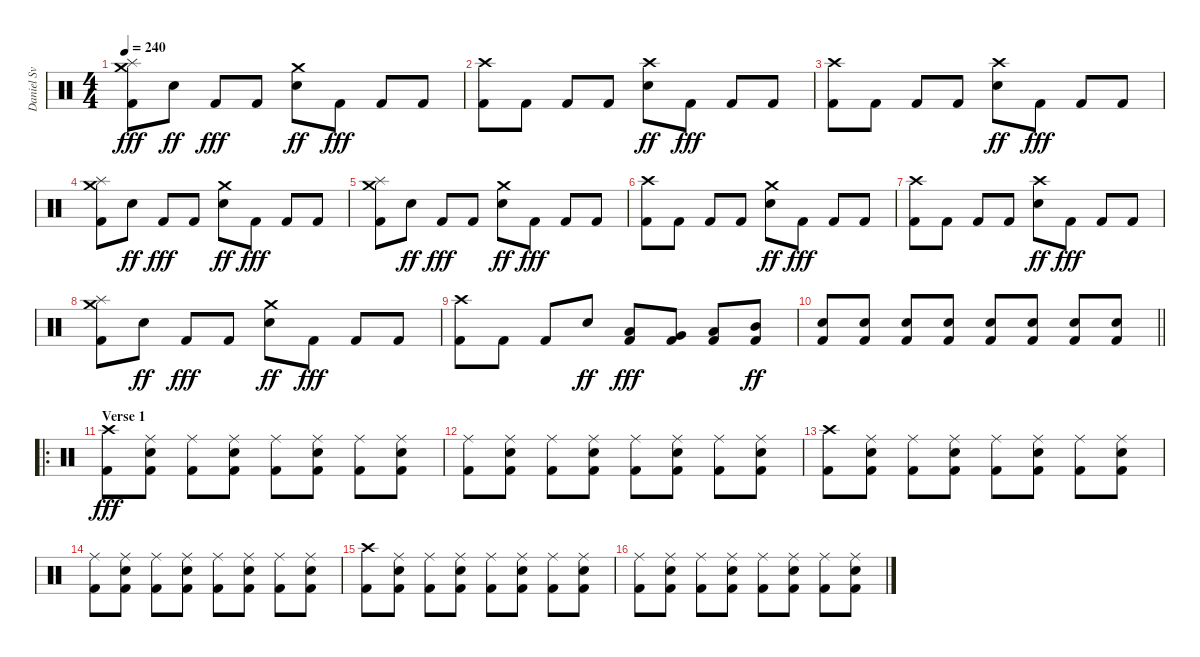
\track (" Daniel Svensson" " Daniel Sv") {instrument percussion}
\staff {score}
\articulation defaults
\ts (4 4)
\tempo 240
\clef neutral
\ks c
("Crash medium (hit)" "Splash (hit)" "Kick (hit) 2").8{dy fff} "Electric Snare (hit)".8{dy ff} "Kick (hit) 2".8{dy fff} "Kick (hit) 2".8 ("Crash medium (hit)" "Electric Snare (hit)").8{dy ff} "Kick (hit) 2".8{dy fff} "Kick (hit) 2".8 "Kick (hit) 2".8 |
("Crash high (hit)" "Kick (hit) 2").8 "Kick (hit) 2".8 "Kick (hit) 2".8 "Kick (hit) 2".8 ("Crash high (hit)" "Electric Snare (hit)").8{dy ff} "Kick (hit) 2".8{dy fff} "Kick (hit) 2".8 "Kick (hit) 2".8 |
("Crash high (hit)" "Kick (hit) 2").8 "Kick (hit) 2".8 "Kick (hit) 2".8 "Kick (hit) 2".8 ("Crash high (hit)" "Electric Snare (hit)").8{dy ff} "Kick (hit) 2".8{dy fff} "Kick (hit) 2".8 "Kick (hit) 2".8 |
("Crash medium (hit)" "Splash (hit)" "Kick (hit) 2").8 "Electric Snare (hit)".8{dy ff} "Kick (hit) 2".8{dy fff} "Kick (hit) 2".8 ("Crash medium (hit)" "Electric Snare (hit)").8{dy ff} "Kick (hit) 2".8{dy fff} "Kick (hit) 2".8 "Kick (hit) 2".8 |
("Crash medium (hit)" "Splash (hit)" "Kick (hit) 2").8 "Electric Snare (hit)".8{dy ff} "Kick (hit) 2".8{dy fff} "Kick (hit) 2".8 ("Crash medium (hit)" "Electric Snare (hit)").8{dy ff} "Kick (hit) 2".8{dy fff} "Kick (hit) 2".8 "Kick (hit) 2".8 |
("Crash high (hit)" "Kick (hit) 2").8 "Kick (hit) 2".8 "Kick (hit) 2".8 "Kick (hit) 2".8 ("Crash medium (hit)" "Electric Snare (hit)").8{dy ff} "Kick (hit) 2".8{dy fff} "Kick (hit) 2".8 "Kick (hit) 2".8 |
("Crash high (hit)" "Kick (hit) 2").8 "Kick (hit) 2".8 "Kick (hit) 2".8 "Kick (hit) 2".8 ("Crash high (hit)" "Electric Snare (hit)").8{dy ff} "Kick (hit) 2".8{dy fff} "Kick (hit) 2".8 "Kick (hit) 2".8 |
("Crash medium (hit)" "Splash (hit)" "Kick (hit) 2").8 "Electric Snare (hit)".8{dy ff} "Kick (hit) 2".8{dy fff} "Kick (hit) 2".8 ("Crash medium (hit)" "Electric Snare (hit)").8{dy ff} "Kick (hit) 2".8{dy fff} "Kick (hit) 2".8 "Kick (hit) 2".8 |
("Crash high (hit)" "Kick (hit) 2").8 "Kick (hit) 2".8 "Kick (hit) 2".8 "Electric Snare (hit)".8{dy ff} ("Low Floor Tom (hit)" "Kick (hit) 2").8{dy fff} ("Very Low Tom (hit)" "Kick (hit) 2").8 ("Low Tom (hit)" "Kick (hit) 2").8 ("Mid Tom (hit)" "Kick (hit) 2").8{dy ff} |
\barLineRight lightlight
("Electric Snare (hit)" "Kick (hit) 2").8 ("Electric Snare (hit)" "Kick (hit) 2").8 ("Electric Snare (hit)" "Kick (hit) 2").8 ("Electric Snare (hit)" "Kick (hit) 2").8 ("Electric Snare (hit)" "Kick (hit) 2").8 ("Electric Snare (hit)" "Kick (hit) 2").8 ("Electric Snare (hit)" "Kick (hit) 2").8 ("Electric Snare (hit)" "Kick (hit) 2").8 |
\ro
\section ("" "Verse 1")
("Crash high (hit)" "Kick (hit) 2").8{dy fff} ("Ride (middle)" "Electric Snare (hit)" "Kick (hit) 2").8 ("Ride (middle)" "Kick (hit) 2").8 ("Ride (middle)" "Electric Snare (hit)" "Kick (hit) 2").8 ("Ride (middle)" "Kick (hit) 2").8 ("Ride (middle)" "Electric Snare (hit)" "Kick (hit) 2").8 ("Ride (middle)" "Kick (hit) 2").8 ("Ride (middle)" "Electric Snare (hit)" "Kick (hit) 2").8 |
("Ride (middle)" "Kick (hit) 2").8 ("Ride (middle)" "Electric Snare (hit)" "Kick (hit) 2").8 ("Ride (middle)" "Kick (hit) 2").8 ("Ride (middle)" "Electric Snare (hit)" "Kick (hit) 2").8 ("Ride (middle)" "Kick (hit) 2").8 ("Ride (middle)" "Electric Snare (hit)" "Kick (hit) 2").8 ("Ride (middle)" "Kick (hit) 2").8 ("Ride (middle)" "Electric Snare (hit)" "Kick (hit) 2").8 |
("Crash high (hit)" "Kick (hit) 2").8 ("Ride (middle)" "Electric Snare (hit)" "Kick (hit) 2").8 ("Ride (middle)" "Kick (hit) 2").8 ("Ride (middle)" "Electric Snare (hit)" "Kick (hit) 2").8 ("Ride (middle)" "Kick (hit) 2").8 ("Ride (middle)" "Electric Snare (hit)" "Kick (hit) 2").8 ("Ride (middle)" "Kick (hit) 2").8 ("Ride (middle)" "Electric Snare (hit)" "Kick (hit) 2").8 |
("Ride (middle)" "Kick (hit) 2").8 ("Ride (middle)" "Electric Snare (hit)" "Kick (hit) 2").8 ("Ride (middle)" "Kick (hit) 2").8 ("Ride (middle)" "Electric Snare (hit)" "Kick (hit) 2").8 ("Ride (middle)" "Kick (hit) 2").8 ("Ride (middle)" "Electric Snare (hit)" "Kick (hit) 2").8 ("Ride (middle)" "Kick (hit) 2").8 ("Ride (middle)" "Electric Snare (hit)" "Kick (hit) 2").8 |
("Crash high (hit)" "Kick (hit) 2").8 ("Ride (middle)" "Electric Snare (hit)" "Kick (hit) 2").8 ("Ride (middle)" "Kick (hit) 2").8 ("Ride (middle)" "Electric Snare (hit)" "Kick (hit) 2").8 ("Ride (middle)" "Kick (hit) 2").8 ("Ride (middle)" "Electric Snare (hit)" "Kick (hit) 2").8 ("Ride (middle)" "Kick (hit) 2").8 ("Ride (middle)" "Electric Snare (hit)" "Kick (hit) 2").8 |
("Ride (middle)" "Kick (hit) 2").8 ("Ride (middle)" "Electric Snare (hit)" "Kick (hit) 2").8 ("Ride (middle)" "Kick (hit) 2").8 ("Ride (middle)" "Electric Snare (hit)" "Kick (hit) 2").8 ("Ride (middle)" "Kick (hit) 2").8 ("Ride (middle)" "Electric Snare (hit)" "Kick (hit) 2").8 ("Ride (middle)" "Kick (hit) 2").8 ("Ride (middle)" "Electric Snare (hit)" "Kick (hit) 2").8
